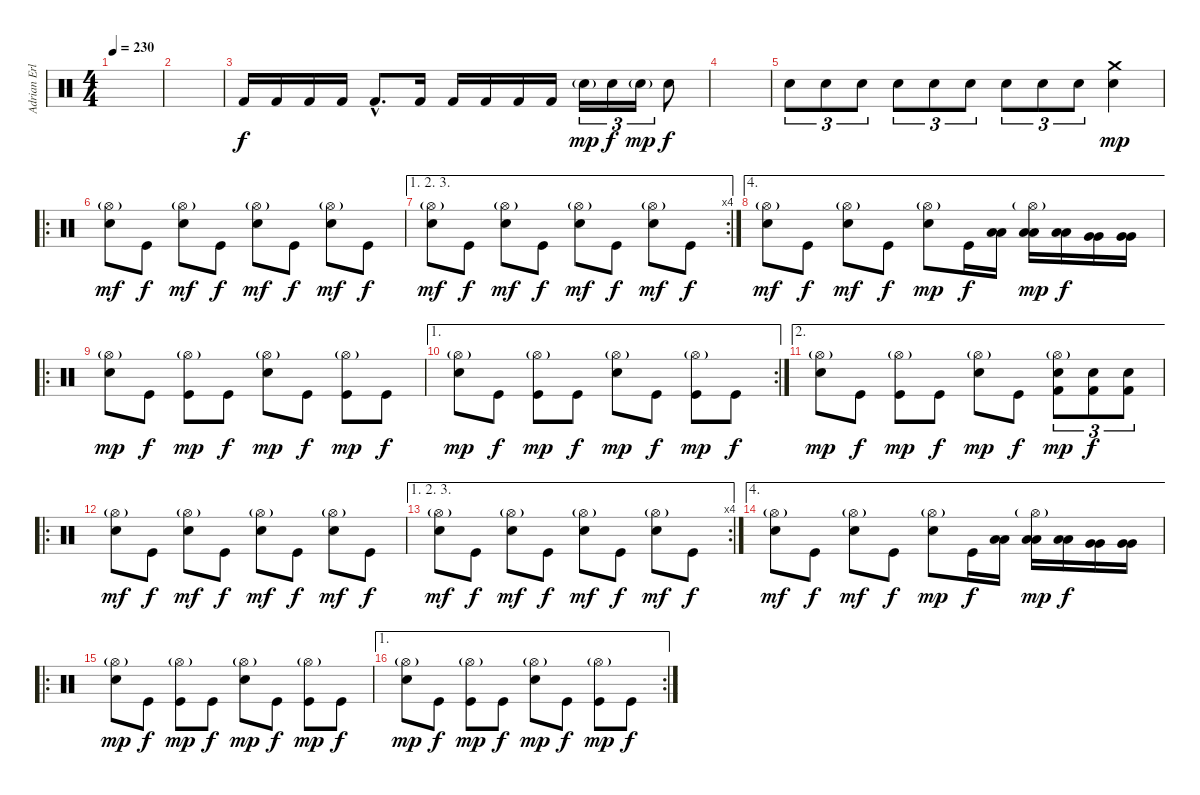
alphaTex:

\track ("Adrian Erlandsson - Drums" "Adrian Erl") {instrument percussion}
\staff {score}
\articulation defaults
\ts (4 4)
\tempo 230
\clef neutral
\ks c
|
|
"Kick (hit) 2".16 "Kick (hit) 2".16 "Kick (hit) 2".16 "Kick (hit) 2".16 "Kick (hit) 2"{hac}.8{d} "Kick (hit) 2".16 "Kick (hit) 2".16 "Kick (hit) 2".16 "Kick (hit) 2".16 "Kick (hit) 2".16 "Electric Snare (hit)"{g}.16{tu (3 2) dy mp} "Electric Snare (hit)".16{tu (3 2) dy f} "Electric Snare (hit)"{g}.16{tu (3 2) dy mp} "Electric Snare (hit)".8{dy f} |
|
"Electric Snare (hit)".8{tu (3 2)} "Electric Snare (hit)".8{tu (3 2)} "Electric Snare (hit)".8{tu (3 2)} "Electric Snare (hit)".8{tu (3 2)} "Electric Snare (hit)".8{tu (3 2)} "Electric Snare (hit)".8{tu (3 2)} "Electric Snare (hit)".8{tu (3 2)} "Electric Snare (hit)".8{tu (3 2)} "Electric Snare (hit)".8{tu (3 2)} ("Crash medium (hit)" "Electric Snare (hit)").4{dy mp} |
\ro
("Hi-Hat (open)"{g} "Electric Snare (hit)").8{dy mf} "Kick (hit)".8{dy f} ("Hi-Hat (open)"{g} "Electric Snare (hit)").8{dy mf} "Kick (hit)".8{dy f} ("Hi-Hat (open)"{g} "Electric Snare (hit)").8{dy mf} "Kick (hit)".8{dy f} ("Hi-Hat (open)"{g} "Electric Snare (hit)").8{dy mf} "Kick (hit)".8{dy f} |
\ae (1 2 3)
\rc 4
("Hi-Hat (open)"{g} "Electric Snare (hit)").8{dy mf} "Kick (hit)".8{dy f} ("Hi-Hat (open)"{g} "Electric Snare (hit)").8{dy mf} "Kick (hit)".8{dy f} ("Hi-Hat (open)"{g} "Electric Snare (hit)").8{dy mf} "Kick (hit)".8{dy f} ("Hi-Hat (open)"{g} "Electric Snare (hit)").8{dy mf} "Kick (hit)".8{dy f} |
\ae 4
("Hi-Hat (open)"{g} "Electric Snare (hit)").8{dy mf} "Kick (hit)".8{dy f} ("Hi-Hat (open)"{g} "Electric Snare (hit)").8{dy mf} "Kick (hit)".8{dy f} ("Hi-Hat (open)"{g} "Electric Snare (hit)").8{dy mp} "Kick (hit)".16{dy f} ("Low Tom (hit)" "Low Tom (hit)").16 ("Hi-Hat (open)"{g} "Low Tom (hit)" "Low Tom (hit)").16{dy mp} ("Low Tom (hit)" "Low Tom (hit)").16{dy f} ("Very Low Tom (hit)" "Very Low Tom (hit)").16 ("Very Low Tom (hit)" "Very Low Tom (hit)").16 |
\ro
("Hi-Hat (open)"{g} "Electric Snare (hit)").8{dy mp} "Kick (hit)".8{dy f} ("Hi-Hat (open)"{g} "Kick (hit)").8{dy mp} "Kick (hit)".8{dy f} ("Hi-Hat (open)"{g} "Electric Snare (hit)").8{dy mp} "Kick (hit)".8{dy f} ("Hi-Hat (open)"{g} "Kick (hit)").8{dy mp} "Kick (hit)".8{dy f} |
\ae 1
\rc 2
("Hi-Hat (open)"{g} "Electric Snare (hit)").8{dy mp} "Kick (hit)".8{dy f} ("Hi-Hat (open)"{g} "Kick (hit)").8{dy mp} "Kick (hit)".8{dy f} ("Hi-Hat (open)"{g} "Electric Snare (hit)").8{dy mp} "Kick (hit)".8{dy f} ("Hi-Hat (open)"{g} "Kick (hit)").8{dy mp} "Kick (hit)".8{dy f} |
\ae 2
("Hi-Hat (open)"{g} "Electric Snare (hit)").8{dy mp} "Kick (hit)".8{dy f} ("Hi-Hat (open)"{g} "Kick (hit)").8{dy mp} "Kick (hit)".8{dy f} ("Hi-Hat (open)"{g} "Electric Snare (hit)").8{dy mp} "Kick (hit)".8{dy f} ("Hi-Hat (open)"{g} "Electric Snare (hit)" "Kick (hit) 2").8{tu (3 2) dy mp} ("Electric Snare (hit)" "Kick (hit) 2").8{tu (3 2) dy f} ("Electric Snare (hit)" "Kick (hit) 2").8{tu (3 2)} |
\ro
("Hi-Hat (open)"{g} "Electric Snare (hit)").8{dy mf} "Kick (hit)".8{dy f} ("Hi-Hat (open)"{g} "Electric Snare (hit)").8{dy mf} "Kick (hit)".8{dy f} ("Hi-Hat (open)"{g} "Electric Snare (hit)").8{dy mf} "Kick (hit)".8{dy f} ("Hi-Hat (open)"{g} "Electric Snare (hit)").8{dy mf} "Kick (hit)".8{dy f} |
\ae (1 2 3)
\rc 4
("Hi-Hat (open)"{g} "Electric Snare (hit)").8{dy mf} "Kick (hit)".8{dy f} ("Hi-Hat (open)"{g} "Electric Snare (hit)").8{dy mf} "Kick (hit)".8{dy f} ("Hi-Hat (open)"{g} "Electric Snare (hit)").8{dy mf} "Kick (hit)".8{dy f} ("Hi-Hat (open)"{g} "Electric Snare (hit)").8{dy mf} "Kick (hit)".8{dy f} |
\ae 4
("Hi-Hat (open)"{g} "Electric Snare (hit)").8{dy mf} "Kick (hit)".8{dy f} ("Hi-Hat (open)"{g} "Electric Snare (hit)").8{dy mf} "Kick (hit)".8{dy f} ("Hi-Hat (open)"{g} "Electric Snare (hit)").8{dy mp} "Kick (hit)".16{dy f} ("Low Tom (hit)" "Low Tom (hit)").16 ("Hi-Hat (open)"{g} "Low Tom (hit)" "Low Tom (hit)").16{dy mp} ("Low Tom (hit)" "Low Tom (hit)").16{dy f} ("Very Low Tom (hit)" "Very Low Tom (hit)").16 ("Very Low Tom (hit)" "Very Low Tom (hit)").16 |
\ro
("Hi-Hat (open)"{g} "Electric Snare (hit)").8{dy mp} "Kick (hit)".8{dy f} ("Hi-Hat (open)"{g} "Kick (hit)").8{dy mp} "Kick (hit)".8{dy f} ("Hi-Hat (open)"{g} "Electric Snare (hit)").8{dy mp} "Kick (hit)".8{dy f} ("Hi-Hat (open)"{g} "Kick (hit)").8{dy mp} "Kick (hit)".8{dy f} |
\ae 1
\rc 2
("Hi-Hat (open)"{g} "Electric Snare (hit)").8{dy mp} "Kick (hit)".8{dy f} ("Hi-Hat (open)"{g} "Kick (hit)").8{dy mp} "Kick (hit)".8{dy f} ("Hi-Hat (open)"{g} "Electric Snare (hit)").8{dy mp} "Kick (hit)".8{dy f} ("Hi-Hat (open)"{g} "Kick (hit)").8{dy mp} "Kick (hit)".8{dy f}
